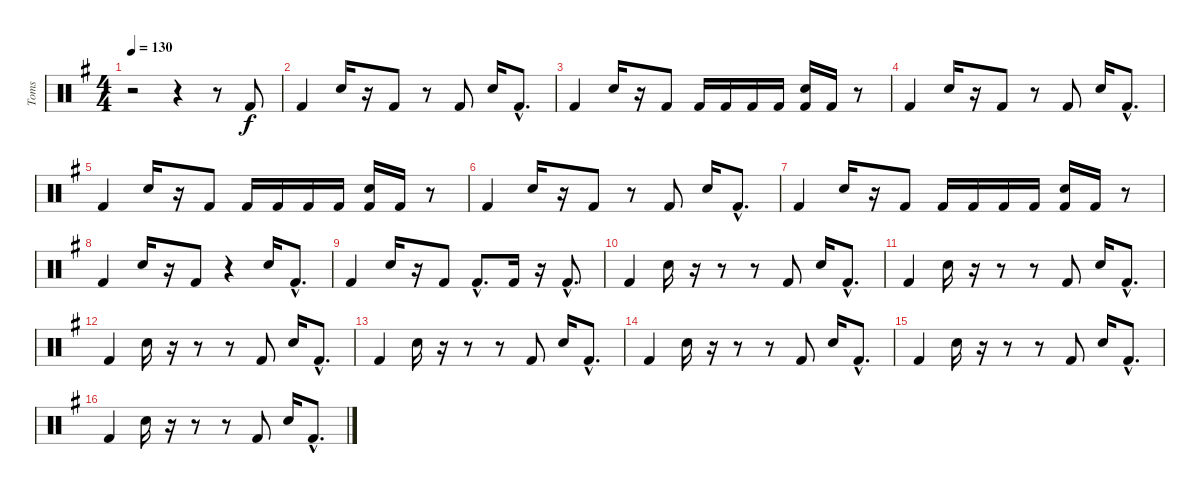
\track ("Toms" "Toms") {instrument percussion}
\staff {score}
\articulation defaults
\ts (4 4)
\tempo 130
\clef neutral
\ks g
r.2{dy f} r.4 r.8 "Kick (hit) 2".8 |
"Kick (hit) 2".4 "Snare (hit) 2".16 r.16 "Kick (hit) 2".8 r.8 "Kick (hit) 2".8 "Snare (hit) 2".16 "Kick (hit) 2"{hac}.8{d} |
"Kick (hit) 2".4 "Snare (hit) 2".16 r.16 "Kick (hit) 2".8 "Kick (hit) 2".16 "Kick (hit) 2".16 "Kick (hit) 2".16 "Kick (hit) 2".16 ("Snare (hit) 2" "Kick (hit) 2").16 "Kick (hit) 2".16 r.8 |
"Kick (hit) 2".4 "Snare (hit) 2".16 r.16 "Kick (hit) 2".8 r.8 "Kick (hit) 2".8 "Snare (hit) 2".16 "Kick (hit) 2"{hac}.8{d} |
"Kick (hit) 2".4 "Snare (hit) 2".16 r.16 "Kick (hit) 2".8 "Kick (hit) 2".16 "Kick (hit) 2".16 "Kick (hit) 2".16 "Kick (hit) 2".16 ("Snare (hit) 2" "Kick (hit) 2").16 "Kick (hit) 2".16 r.8 |
"Kick (hit) 2".4 "Snare (hit) 2".16 r.16 "Kick (hit) 2".8 r.8 "Kick (hit) 2".8 "Snare (hit) 2".16 "Kick (hit) 2"{hac}.8{d} |
"Kick (hit) 2".4 "Snare (hit) 2".16 r.16 "Kick (hit) 2".8 "Kick (hit) 2".16 "Kick (hit) 2".16 "Kick (hit) 2".16 "Kick (hit) 2".16 ("Snare (hit) 2" "Kick (hit) 2").16 "Kick (hit) 2".16 r.8 |
"Kick (hit) 2".4 "Snare (hit) 2".16 r.16 "Kick (hit) 2".8 r.4 "Snare (hit) 2".16 "Kick (hit) 2"{hac}.8{d} |
"Kick (hit) 2".4 "Snare (hit) 2".16 r.16 "Kick (hit) 2".8 "Kick (hit) 2"{hac}.8{d} "Kick (hit) 2".16 r.16 "Kick (hit) 2"{hac}.8{d} |
"Kick (hit) 2".4 "Snare (hit) 2".16 r.16 r.8 r.8 "Kick (hit) 2".8 "Snare (hit) 2".16 "Kick (hit) 2"{hac}.8{d} |
"Kick (hit) 2".4 "Snare (hit) 2".16 r.16 r.8 r.8 "Kick (hit) 2".8 "Snare (hit) 2".16 "Kick (hit) 2"{hac}.8{d} |
"Kick (hit) 2".4 "Snare (hit) 2".16 r.16 r.8 r.8 "Kick (hit) 2".8 "Snare (hit) 2".16 "Kick (hit) 2"{hac}.8{d} |
"Kick (hit) 2".4 "Snare (hit) 2".16 r.16 r.8 r.8 "Kick (hit) 2".8 "Snare (hit) 2".16 "Kick (hit) 2"{hac}.8{d} |
"Kick (hit) 2".4 "Snare (hit) 2".16 r.16 r.8 r.8 "Kick (hit) 2".8 "Snare (hit) 2".16 "Kick (hit) 2"{hac}.8{d} |
"Kick (hit) 2".4 "Snare (hit) 2".16 r.16 r.8 r.8 "Kick (hit) 2".8 "Snare (hit) 2".16 "Kick (hit) 2"{hac}.8{d} |
"Kick (hit) 2".4 "Snare (hit) 2".16 r.16 r.8 r.8 "Kick (hit) 2".8 "Snare (hit) 2".16 "Kick (hit) 2"{hac}.8{d}
